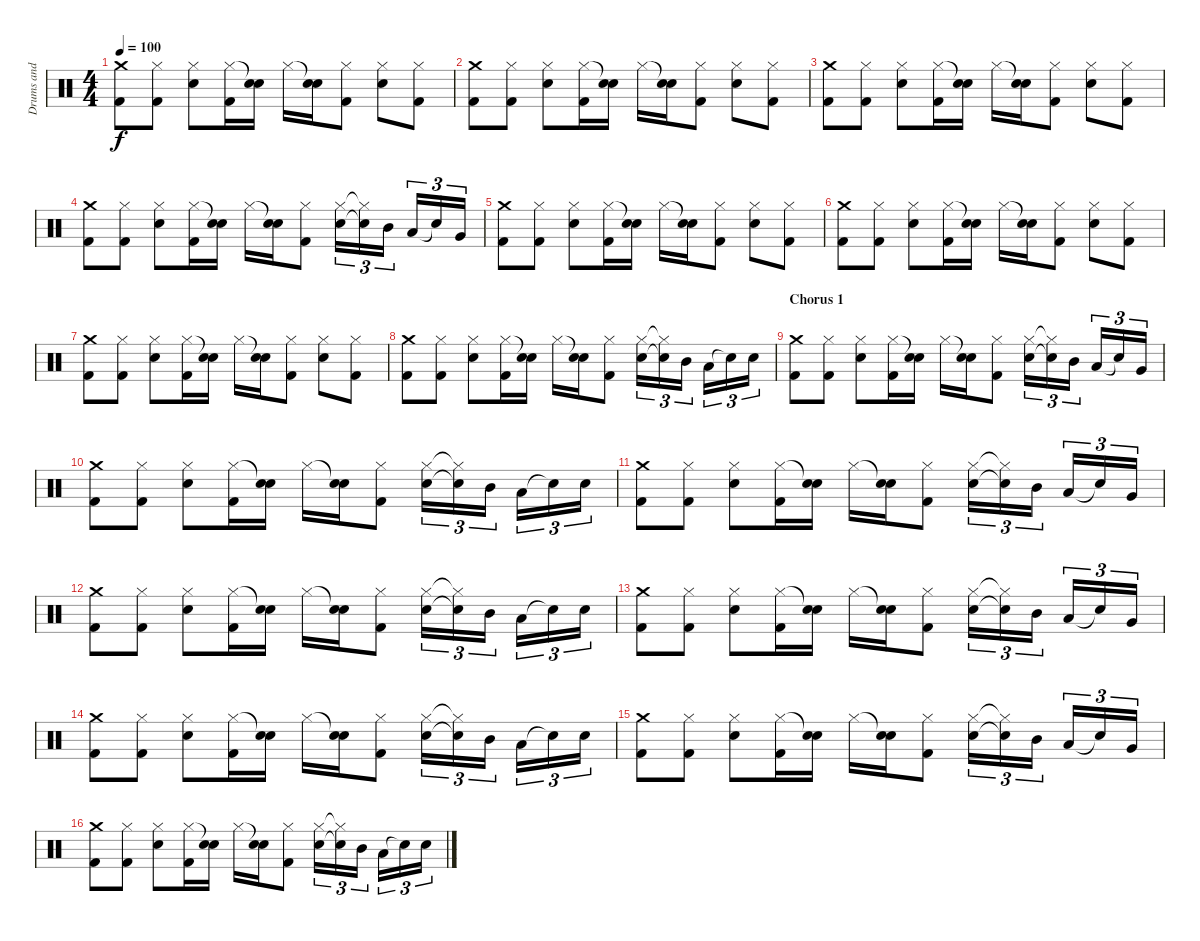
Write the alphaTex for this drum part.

\track ("Drums and Percussion" "Drums and ") {instrument percussion}
\staff {score}
\articulation defaults
\ts (4 4)
\tempo 100
\clef neutral
\ks c
("Crash medium (hit)" "Kick (hit) 2").8{dy f} ("Hi-Hat (closed)" "Kick (hit) 2").8 ("Hi-Hat (closed)" "Electric Snare (hit)").8 ("Hi-Hat (closed)" "Kick (hit) 2").16 ("Snare (hit)"{t} "Electric Snare (hit)").16 "Hi-Hat (closed)".16 ("Snare (hit)"{t} "Electric Snare (hit)").16 ("Hi-Hat (closed)" "Kick (hit) 2").8 ("Hi-Hat (closed)" "Electric Snare (hit)").8 ("Hi-Hat (closed)" "Kick (hit) 2").8 |
("Crash medium (hit)" "Kick (hit) 2").8 ("Hi-Hat (closed)" "Kick (hit) 2").8 ("Hi-Hat (closed)" "Electric Snare (hit)").8 ("Hi-Hat (closed)" "Kick (hit) 2").16 ("Snare (hit)"{t} "Electric Snare (hit)").16 "Hi-Hat (closed)".16 ("Snare (hit)"{t} "Electric Snare (hit)").16 ("Hi-Hat (closed)" "Kick (hit) 2").8 ("Hi-Hat (closed)" "Electric Snare (hit)").8 ("Hi-Hat (closed)" "Kick (hit) 2").8 |
("Crash medium (hit)" "Kick (hit) 2").8 ("Hi-Hat (closed)" "Kick (hit) 2").8 ("Hi-Hat (closed)" "Electric Snare (hit)").8 ("Hi-Hat (closed)" "Kick (hit) 2").16 ("Snare (hit)"{t} "Electric Snare (hit)").16 "Hi-Hat (closed)".16 ("Snare (hit)"{t} "Electric Snare (hit)").16 ("Hi-Hat (closed)" "Kick (hit) 2").8 ("Hi-Hat (closed)" "Electric Snare (hit)").8 ("Hi-Hat (closed)" "Kick (hit) 2").8 |
("Crash medium (hit)" "Kick (hit) 2").8 ("Hi-Hat (closed)" "Kick (hit) 2").8 ("Hi-Hat (closed)" "Electric Snare (hit)").8 ("Hi-Hat (closed)" "Kick (hit) 2").16 ("Snare (hit)"{t} "Electric Snare (hit)").16 "Hi-Hat (closed)".16 ("Snare (hit)"{t} "Electric Snare (hit)").16 ("Hi-Hat (closed)" "Kick (hit) 2").8 ("Hi-Hat (closed)" "Electric Snare (hit)").16{tu (3 2)} ("Hi-Hat (closed)"{t} "Snare (hit)"{t}).16{tu (3 2)} "Mid Tom (hit)".16{tu (3 2)} "Low Tom (hit)".16{tu (3 2)} "Snare (hit)"{t}.16{tu (3 2)} "Very Low Tom (hit)".16{tu (3 2)} |
("Crash medium (hit)" "Kick (hit) 2").8 ("Hi-Hat (closed)" "Kick (hit) 2").8 ("Hi-Hat (closed)" "Electric Snare (hit)").8 ("Hi-Hat (closed)" "Kick (hit) 2").16 ("Snare (hit)"{t} "Electric Snare (hit)").16 "Hi-Hat (closed)".16 ("Snare (hit)"{t} "Electric Snare (hit)").16 ("Hi-Hat (closed)" "Kick (hit) 2").8 ("Hi-Hat (closed)" "Electric Snare (hit)").8 ("Hi-Hat (closed)" "Kick (hit) 2").8 |
("Crash medium (hit)" "Kick (hit) 2").8 ("Hi-Hat (closed)" "Kick (hit) 2").8 ("Hi-Hat (closed)" "Electric Snare (hit)").8 ("Hi-Hat (closed)" "Kick (hit) 2").16 ("Snare (hit)"{t} "Electric Snare (hit)").16 "Hi-Hat (closed)".16 ("Snare (hit)"{t} "Electric Snare (hit)").16 ("Hi-Hat (closed)" "Kick (hit) 2").8 ("Hi-Hat (closed)" "Electric Snare (hit)").8 ("Hi-Hat (closed)" "Kick (hit) 2").8 |
("Crash medium (hit)" "Kick (hit) 2").8 ("Hi-Hat (closed)" "Kick (hit) 2").8 ("Hi-Hat (closed)" "Electric Snare (hit)").8 ("Hi-Hat (closed)" "Kick (hit) 2").16 ("Snare (hit)"{t} "Electric Snare (hit)").16 "Hi-Hat (closed)".16 ("Snare (hit)"{t} "Electric Snare (hit)").16 ("Hi-Hat (closed)" "Kick (hit) 2").8 ("Hi-Hat (closed)" "Electric Snare (hit)").8 ("Hi-Hat (closed)" "Kick (hit) 2").8 |
("Crash medium (hit)" "Kick (hit) 2").8 ("Hi-Hat (closed)" "Kick (hit) 2").8 ("Hi-Hat (closed)" "Electric Snare (hit)").8 ("Hi-Hat (closed)" "Kick (hit) 2").16 ("Snare (hit)"{t} "Electric Snare (hit)").16 "Hi-Hat (closed)".16 ("Snare (hit)"{t} "Electric Snare (hit)").16 ("Hi-Hat (closed)" "Kick (hit) 2").8 ("Hi-Hat (closed)" "Electric Snare (hit)").16{tu (3 2)} ("Hi-Hat (closed)"{t} "Snare (hit)"{t}).16{tu (3 2)} "Mid Tom (hit)".16{tu (3 2)} "Low Tom (hit)".16{tu (3 2)} "Snare (hit)"{t}.16{tu (3 2)} "Electric Snare (hit)".16{tu (3 2)} |
\section ("" "Chorus 1")
("Crash medium (hit)" "Kick (hit) 2").8 ("Hi-Hat (closed)" "Kick (hit) 2").8 ("Hi-Hat (closed)" "Electric Snare (hit)").8 ("Hi-Hat (closed)" "Kick (hit) 2").16 ("Snare (hit)"{t} "Electric Snare (hit)").16 "Hi-Hat (closed)".16 ("Snare (hit)"{t} "Electric Snare (hit)").16 ("Hi-Hat (closed)" "Kick (hit) 2").8 ("Hi-Hat (closed)" "Electric Snare (hit)").16{tu (3 2)} ("Hi-Hat (closed)"{t} "Snare (hit)"{t}).16{tu (3 2)} "Mid Tom (hit)".16{tu (3 2)} "Low Tom (hit)".16{tu (3 2)} "Snare (hit)"{t}.16{tu (3 2)} "Very Low Tom (hit)".16{tu (3 2)} |
("Crash medium (hit)" "Kick (hit) 2").8 ("Hi-Hat (closed)" "Kick (hit) 2").8 ("Hi-Hat (closed)" "Electric Snare (hit)").8 ("Hi-Hat (closed)" "Kick (hit) 2").16 ("Snare (hit)"{t} "Electric Snare (hit)").16 "Hi-Hat (closed)".16 ("Snare (hit)"{t} "Electric Snare (hit)").16 ("Hi-Hat (closed)" "Kick (hit) 2").8 ("Hi-Hat (closed)" "Electric Snare (hit)").16{tu (3 2)} ("Hi-Hat (closed)"{t} "Snare (hit)"{t}).16{tu (3 2)} "Mid Tom (hit)".16{tu (3 2)} "Low Tom (hit)".16{tu (3 2)} "Snare (hit)"{t}.16{tu (3 2)} "Electric Snare (hit)".16{tu (3 2)} |
("Crash medium (hit)" "Kick (hit) 2").8 ("Hi-Hat (closed)" "Kick (hit) 2").8 ("Hi-Hat (closed)" "Electric Snare (hit)").8 ("Hi-Hat (closed)" "Kick (hit) 2").16 ("Snare (hit)"{t} "Electric Snare (hit)").16 "Hi-Hat (closed)".16 ("Snare (hit)"{t} "Electric Snare (hit)").16 ("Hi-Hat (closed)" "Kick (hit) 2").8 ("Hi-Hat (closed)" "Electric Snare (hit)").16{tu (3 2)} ("Hi-Hat (closed)"{t} "Snare (hit)"{t}).16{tu (3 2)} "Mid Tom (hit)".16{tu (3 2)} "Low Tom (hit)".16{tu (3 2)} "Snare (hit)"{t}.16{tu (3 2)} "Very Low Tom (hit)".16{tu (3 2)} |
("Crash medium (hit)" "Kick (hit) 2").8 ("Hi-Hat (closed)" "Kick (hit) 2").8 ("Hi-Hat (closed)" "Electric Snare (hit)").8 ("Hi-Hat (closed)" "Kick (hit) 2").16 ("Snare (hit)"{t} "Electric Snare (hit)").16 "Hi-Hat (closed)".16 ("Snare (hit)"{t} "Electric Snare (hit)").16 ("Hi-Hat (closed)" "Kick (hit) 2").8 ("Hi-Hat (closed)" "Electric Snare (hit)").16{tu (3 2)} ("Hi-Hat (closed)"{t} "Snare (hit)"{t}).16{tu (3 2)} "Mid Tom (hit)".16{tu (3 2)} "Low Tom (hit)".16{tu (3 2)} "Snare (hit)"{t}.16{tu (3 2)} "Electric Snare (hit)".16{tu (3 2)} |
("Crash medium (hit)" "Kick (hit) 2").8 ("Hi-Hat (closed)" "Kick (hit) 2").8 ("Hi-Hat (closed)" "Electric Snare (hit)").8 ("Hi-Hat (closed)" "Kick (hit) 2").16 ("Snare (hit)"{t} "Electric Snare (hit)").16 "Hi-Hat (closed)".16 ("Snare (hit)"{t} "Electric Snare (hit)").16 ("Hi-Hat (closed)" "Kick (hit) 2").8 ("Hi-Hat (closed)" "Electric Snare (hit)").16{tu (3 2)} ("Hi-Hat (closed)"{t} "Snare (hit)"{t}).16{tu (3 2)} "Mid Tom (hit)".16{tu (3 2)} "Low Tom (hit)".16{tu (3 2)} "Snare (hit)"{t}.16{tu (3 2)} "Very Low Tom (hit)".16{tu (3 2)} |
("Crash medium (hit)" "Kick (hit) 2").8 ("Hi-Hat (closed)" "Kick (hit) 2").8 ("Hi-Hat (closed)" "Electric Snare (hit)").8 ("Hi-Hat (closed)" "Kick (hit) 2").16 ("Snare (hit)"{t} "Electric Snare (hit)").16 "Hi-Hat (closed)".16 ("Snare (hit)"{t} "Electric Snare (hit)").16 ("Hi-Hat (closed)" "Kick (hit) 2").8 ("Hi-Hat (closed)" "Electric Snare (hit)").16{tu (3 2)} ("Hi-Hat (closed)"{t} "Snare (hit)"{t}).16{tu (3 2)} "Mid Tom (hit)".16{tu (3 2)} "Low Tom (hit)".16{tu (3 2)} "Snare (hit)"{t}.16{tu (3 2)} "Electric Snare (hit)".16{tu (3 2)} |
("Crash medium (hit)" "Kick (hit) 2").8 ("Hi-Hat (closed)" "Kick (hit) 2").8 ("Hi-Hat (closed)" "Electric Snare (hit)").8 ("Hi-Hat (closed)" "Kick (hit) 2").16 ("Snare (hit)"{t} "Electric Snare (hit)").16 "Hi-Hat (closed)".16 ("Snare (hit)"{t} "Electric Snare (hit)").16 ("Hi-Hat (closed)" "Kick (hit) 2").8 ("Hi-Hat (closed)" "Electric Snare (hit)").16{tu (3 2)} ("Hi-Hat (closed)"{t} "Snare (hit)"{t}).16{tu (3 2)} "Mid Tom (hit)".16{tu (3 2)} "Low Tom (hit)".16{tu (3 2)} "Snare (hit)"{t}.16{tu (3 2)} "Very Low Tom (hit)".16{tu (3 2)} |
("Crash medium (hit)" "Kick (hit) 2").8 ("Hi-Hat (closed)" "Kick (hit) 2").8 ("Hi-Hat (closed)" "Electric Snare (hit)").8 ("Hi-Hat (closed)" "Kick (hit) 2").16 ("Snare (hit)"{t} "Electric Snare (hit)").16 "Hi-Hat (closed)".16 ("Snare (hit)"{t} "Electric Snare (hit)").16 ("Hi-Hat (closed)" "Kick (hit) 2").8 ("Hi-Hat (closed)" "Electric Snare (hit)").16{tu (3 2)} ("Hi-Hat (closed)"{t} "Snare (hit)"{t}).16{tu (3 2)} "Mid Tom (hit)".16{tu (3 2)} "Low Tom (hit)".16{tu (3 2)} "Snare (hit)"{t}.16{tu (3 2)} "Electric Snare (hit)".16{tu (3 2)}
